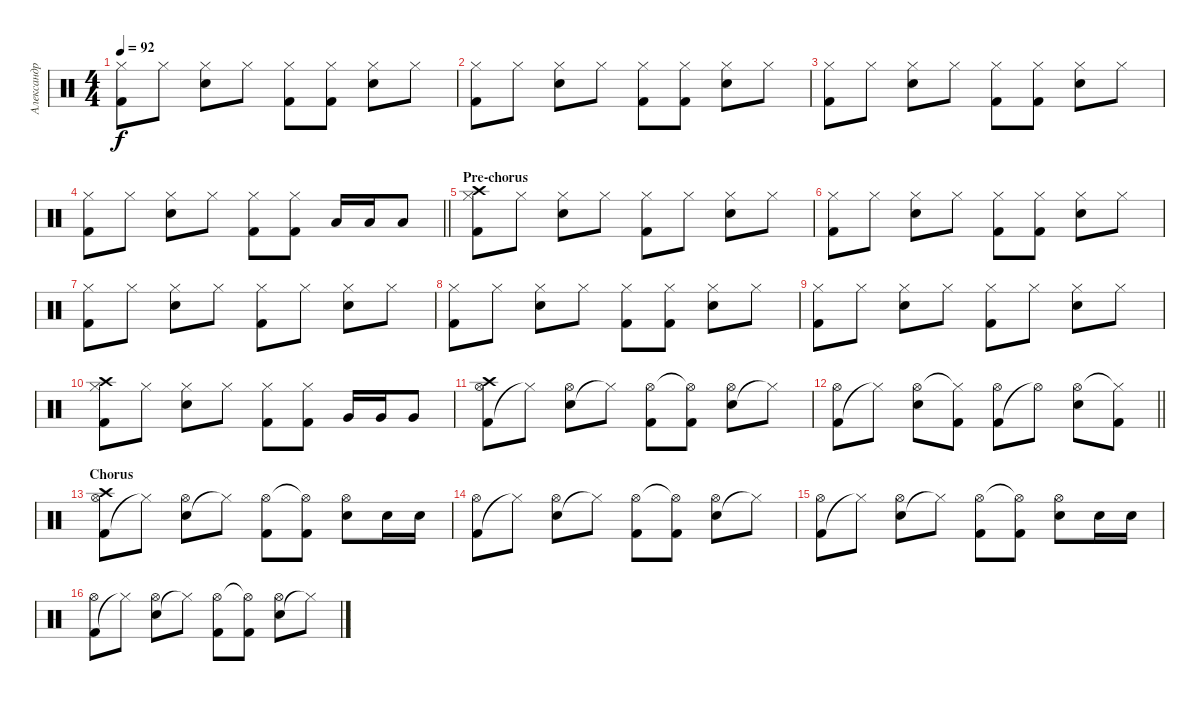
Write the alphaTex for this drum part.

\track ("Александр Барзилович" "Александр ") {instrument percussion}
\staff {score}
\articulation defaults
\ts (4 4)
\tempo 92
\clef neutral
\ks c
("Kick (hit) 2" "Hi-Hat (closed)").8{dy f} "Hi-Hat (closed)".8 ("Electric Snare (hit)" "Hi-Hat (closed)").8 "Hi-Hat (closed)".8 ("Kick (hit) 2" "Hi-Hat (closed)").8 ("Kick (hit) 2" "Hi-Hat (closed)").8 ("Electric Snare (hit)" "Hi-Hat (closed)").8 "Hi-Hat (closed)".8 |
("Kick (hit) 2" "Hi-Hat (closed)").8 "Hi-Hat (closed)".8 ("Electric Snare (hit)" "Hi-Hat (closed)").8 "Hi-Hat (closed)".8 ("Kick (hit) 2" "Hi-Hat (closed)").8 ("Kick (hit) 2" "Hi-Hat (closed)").8 ("Electric Snare (hit)" "Hi-Hat (closed)").8 "Hi-Hat (closed)".8 |
("Kick (hit) 2" "Hi-Hat (closed)").8 "Hi-Hat (closed)".8 ("Electric Snare (hit)" "Hi-Hat (closed)").8 "Hi-Hat (closed)".8 ("Kick (hit) 2" "Hi-Hat (closed)").8 ("Kick (hit) 2" "Hi-Hat (closed)").8 ("Electric Snare (hit)" "Hi-Hat (closed)").8 "Hi-Hat (closed)".8 |
\barLineRight lightlight
("Kick (hit) 2" "Hi-Hat (closed)").8 "Hi-Hat (closed)".8 ("Electric Snare (hit)" "Hi-Hat (closed)").8 "Hi-Hat (closed)".8 ("Kick (hit) 2" "Hi-Hat (closed)").8 ("Kick (hit) 2" "Hi-Hat (closed)").8 "Low Tom (hit)".16 "Low Tom (hit)".16 "Low Tom (hit)".8 |
\section ("" "Pre-chorus")
("Kick (hit) 2" "Hi-Hat (closed)" "Crash high (hit)").8 "Hi-Hat (closed)".8 ("Electric Snare (hit)" "Hi-Hat (closed)").8 "Hi-Hat (closed)".8 ("Kick (hit) 2" "Hi-Hat (closed)").8 "Hi-Hat (closed)".8 ("Electric Snare (hit)" "Hi-Hat (closed)").8 "Hi-Hat (closed)".8 |
("Kick (hit) 2" "Hi-Hat (closed)").8 "Hi-Hat (closed)".8 ("Electric Snare (hit)" "Hi-Hat (closed)").8 "Hi-Hat (closed)".8 ("Kick (hit) 2" "Hi-Hat (closed)").8 ("Kick (hit) 2" "Hi-Hat (closed)").8 ("Electric Snare (hit)" "Hi-Hat (closed)").8 "Hi-Hat (closed)".8 |
("Kick (hit) 2" "Hi-Hat (closed)").8 "Hi-Hat (closed)".8 ("Electric Snare (hit)" "Hi-Hat (closed)").8 "Hi-Hat (closed)".8 ("Kick (hit) 2" "Hi-Hat (closed)").8 "Hi-Hat (closed)".8 ("Electric Snare (hit)" "Hi-Hat (closed)").8 "Hi-Hat (closed)".8 |
("Kick (hit) 2" "Hi-Hat (closed)").8 "Hi-Hat (closed)".8 ("Electric Snare (hit)" "Hi-Hat (closed)").8 "Hi-Hat (closed)".8 ("Kick (hit) 2" "Hi-Hat (closed)").8 ("Kick (hit) 2" "Hi-Hat (closed)").8 ("Electric Snare (hit)" "Hi-Hat (closed)").8 "Hi-Hat (closed)".8 |
("Kick (hit) 2" "Hi-Hat (closed)").8 "Hi-Hat (closed)".8 ("Electric Snare (hit)" "Hi-Hat (closed)").8 "Hi-Hat (closed)".8 ("Kick (hit) 2" "Hi-Hat (closed)").8 "Hi-Hat (closed)".8 ("Electric Snare (hit)" "Hi-Hat (closed)").8 "Hi-Hat (closed)".8 |
("Kick (hit) 2" "Hi-Hat (closed)" "Crash high (hit)").8 "Hi-Hat (closed)".8 ("Electric Snare (hit)" "Hi-Hat (closed)").8 "Hi-Hat (closed)".8 ("Kick (hit) 2" "Hi-Hat (closed)").8 ("Kick (hit) 2" "Hi-Hat (closed)").8 "Very Low Tom (hit)".16 "Very Low Tom (hit)".16 "Very Low Tom (hit)".8 |
("Kick (hit) 2" "Hi-Hat (open)" "Crash high (hit)").8 "Hi-Hat (closed)"{t}.8 ("Electric Snare (hit)" "Hi-Hat (open)").8 "Hi-Hat (closed)"{t}.8 ("Kick (hit) 2" "Hi-Hat (open)").8 ("Kick (hit) 2" "Hi-Hat (open)"{t}).8 ("Electric Snare (hit)" "Hi-Hat (open)").8 "Hi-Hat (closed)"{t}.8 |
\barLineRight lightlight
("Kick (hit) 2" "Hi-Hat (open)").8 "Hi-Hat (closed)"{t}.8 ("Electric Snare (hit)" "Hi-Hat (open)").8 ("Kick (hit) 2" "Hi-Hat (closed)"{t}).8 ("Kick (hit) 2" "Hi-Hat (open)").8 "Hi-Hat (open)"{t}.8 ("Electric Snare (hit)" "Hi-Hat (open)").8 ("Kick (hit) 2" "Hi-Hat (closed)"{t}).8 |
\section ("" "Chorus")
("Kick (hit) 2" "Hi-Hat (open)" "Crash high (hit)").8 "Hi-Hat (closed)"{t}.8 ("Electric Snare (hit)" "Hi-Hat (open)").8 "Hi-Hat (closed)"{t}.8 ("Kick (hit) 2" "Hi-Hat (open)").8 ("Kick (hit) 2" "Hi-Hat (open)"{t}).8 ("Electric Snare (hit)" "Hi-Hat (open)").8 "Electric Snare (hit)".16 "Electric Snare (hit)".16 |
("Kick (hit) 2" "Hi-Hat (open)").8 "Hi-Hat (closed)"{t}.8 ("Electric Snare (hit)" "Hi-Hat (open)").8 "Hi-Hat (closed)"{t}.8 ("Kick (hit) 2" "Hi-Hat (open)").8 ("Kick (hit) 2" "Hi-Hat (open)"{t}).8 ("Electric Snare (hit)" "Hi-Hat (open)").8 "Hi-Hat (closed)"{t}.8 |
("Kick (hit) 2" "Hi-Hat (open)").8 "Hi-Hat (closed)"{t}.8 ("Electric Snare (hit)" "Hi-Hat (open)").8 "Hi-Hat (closed)"{t}.8 ("Kick (hit) 2" "Hi-Hat (open)").8 ("Kick (hit) 2" "Hi-Hat (open)"{t}).8 ("Electric Snare (hit)" "Hi-Hat (open)").8 "Electric Snare (hit)".16 "Electric Snare (hit)".16 |
("Kick (hit) 2" "Hi-Hat (open)").8 "Hi-Hat (closed)"{t}.8 ("Electric Snare (hit)" "Hi-Hat (open)").8 "Hi-Hat (closed)"{t}.8 ("Kick (hit) 2" "Hi-Hat (open)").8 ("Kick (hit) 2" "Hi-Hat (open)"{t}).8 ("Electric Snare (hit)" "Hi-Hat (open)").8 "Hi-Hat (closed)"{t}.8
